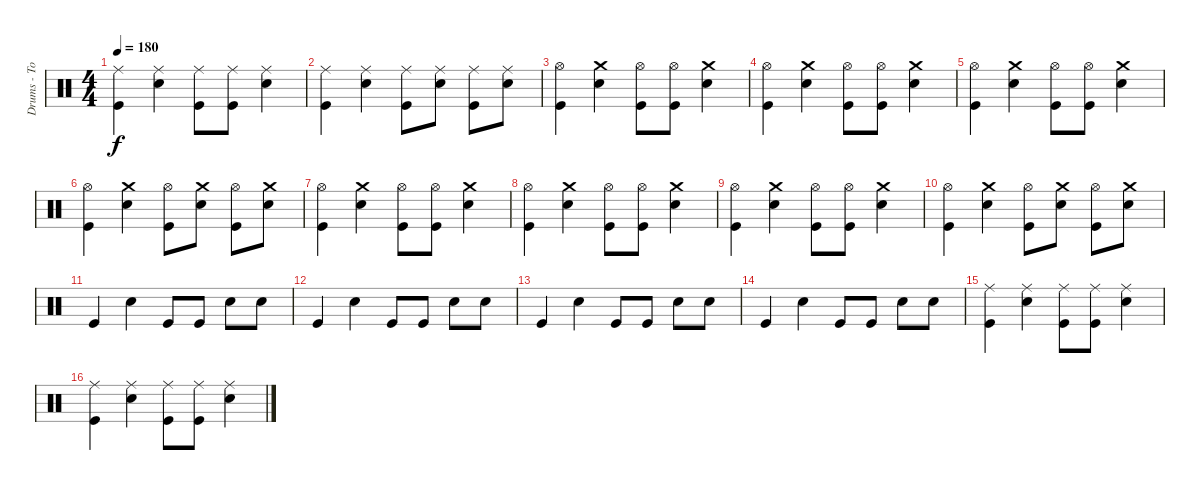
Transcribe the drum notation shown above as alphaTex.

\track ("Drums - Tom" "Drums - To") {instrument percussion}
\staff {score}
\articulation defaults
\ts (4 4)
\tempo 180
\clef neutral
\ks c
("Ride (middle)" "Kick (hit)").4{dy f} ("Ride (middle)" "Snare (hit) 2").4 ("Ride (middle)" "Kick (hit)").8 ("Ride (middle)" "Kick (hit)").8 ("Ride (middle)" "Snare (hit) 2").4 |
("Ride (middle)" "Kick (hit)").4 ("Ride (middle)" "Snare (hit) 2").4 ("Ride (middle)" "Kick (hit)").8 ("Ride (middle)" "Snare (hit) 2").8 ("Ride (middle)" "Kick (hit)").8 ("Ride (middle)" "Snare (hit) 2").8 |
("Hi-Hat (open)" "Kick (hit)").4 ("Crash medium (hit)" "Snare (hit) 2").4 ("Hi-Hat (open)" "Kick (hit)").8 ("Hi-Hat (open)" "Kick (hit)").8 ("Crash medium (hit)" "Snare (hit) 2").4 |
("Hi-Hat (open)" "Kick (hit)").4 ("Crash medium (hit)" "Snare (hit) 2").4 ("Hi-Hat (open)" "Kick (hit)").8 ("Hi-Hat (open)" "Kick (hit)").8 ("Crash medium (hit)" "Snare (hit) 2").4 |
("Hi-Hat (open)" "Kick (hit)").4 ("Crash medium (hit)" "Snare (hit) 2").4 ("Hi-Hat (open)" "Kick (hit)").8 ("Hi-Hat (open)" "Kick (hit)").8 ("Crash medium (hit)" "Snare (hit) 2").4 |
("Hi-Hat (open)" "Kick (hit)").4 ("Crash medium (hit)" "Snare (hit) 2").4 ("Hi-Hat (open)" "Kick (hit)").8 ("Crash medium (hit)" "Snare (hit) 2").8 ("Hi-Hat (open)" "Kick (hit)").8 ("Crash medium (hit)" "Snare (hit) 2").8 |
("Hi-Hat (open)" "Kick (hit)").4 ("Crash medium (hit)" "Snare (hit) 2").4 ("Hi-Hat (open)" "Kick (hit)").8 ("Hi-Hat (open)" "Kick (hit)").8 ("Crash medium (hit)" "Snare (hit) 2").4 |
("Hi-Hat (open)" "Kick (hit)").4 ("Crash medium (hit)" "Snare (hit) 2").4 ("Hi-Hat (open)" "Kick (hit)").8 ("Hi-Hat (open)" "Kick (hit)").8 ("Crash medium (hit)" "Snare (hit) 2").4 |
("Hi-Hat (open)" "Kick (hit)").4 ("Crash medium (hit)" "Snare (hit) 2").4 ("Hi-Hat (open)" "Kick (hit)").8 ("Hi-Hat (open)" "Kick (hit)").8 ("Crash medium (hit)" "Snare (hit) 2").4 |
("Hi-Hat (open)" "Kick (hit)").4 ("Crash medium (hit)" "Snare (hit) 2").4 ("Hi-Hat (open)" "Kick (hit)").8 ("Crash medium (hit)" "Snare (hit) 2").8 ("Hi-Hat (open)" "Kick (hit)").8 ("Crash medium (hit)" "Snare (hit) 2").8 |
"Kick (hit)".4 "Snare (hit) 2".4 "Kick (hit)".8 "Kick (hit)".8 "Snare (hit) 2".8 "Snare (hit) 2".8 |
"Kick (hit)".4 "Snare (hit) 2".4 "Kick (hit)".8 "Kick (hit)".8 "Snare (hit) 2".8 "Snare (hit) 2".8 |
"Kick (hit)".4 "Snare (hit) 2".4 "Kick (hit)".8 "Kick (hit)".8 "Snare (hit) 2".8 "Snare (hit) 2".8 |
"Kick (hit)".4 "Snare (hit) 2".4 "Kick (hit)".8 "Kick (hit)".8 "Snare (hit) 2".8 "Snare (hit) 2".8 |
("Ride (middle)" "Kick (hit)").4 ("Ride (middle)" "Snare (hit) 2").4 ("Ride (middle)" "Kick (hit)").8 ("Ride (middle)" "Kick (hit)").8 ("Ride (middle)" "Snare (hit) 2").4 |
("Ride (middle)" "Kick (hit)").4 ("Ride (middle)" "Snare (hit) 2").4 ("Ride (middle)" "Kick (hit)").8 ("Ride (middle)" "Kick (hit)").8 ("Ride (middle)" "Snare (hit) 2").4
